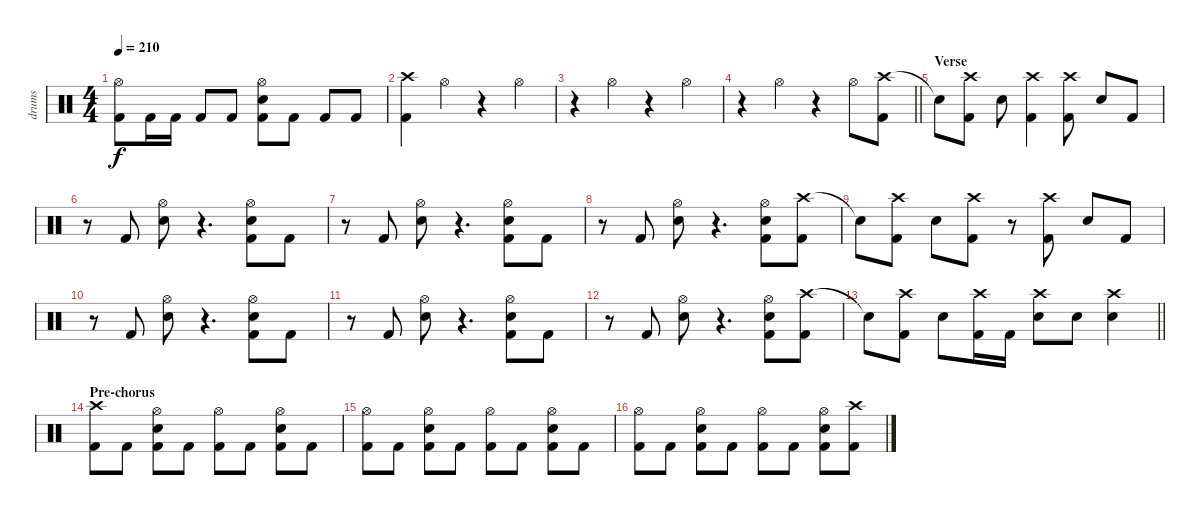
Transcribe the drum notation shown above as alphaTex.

\track ("drums" "drums") {solo instrument percussion}
\staff {score}
\articulation defaults
\ts (4 4)
\tempo 210
\clef neutral
\ks c
("Hi-Hat (open)" "Kick (hit) 2").8{dy f} "Kick (hit) 2".16 "Kick (hit) 2".16 "Kick (hit) 2".8 "Kick (hit) 2".8 ("Hi-Hat (open)" "Electric Snare (hit)" "Kick (hit) 2").8 "Kick (hit) 2".8 "Kick (hit) 2".8 "Kick (hit) 2".8 |
("Crash high (hit)" "Kick (hit) 2").4 "Hi-Hat (open)".4 r.4 "Hi-Hat (open)".4 |
r.4 "Hi-Hat (open)".4 r.4 "Hi-Hat (open)".4 |
\barLineRight lightlight
r.4 "Hi-Hat (open)".4 r.4 "Hi-Hat (open)".8 ("Crash high (hit)" "Kick (hit) 2").8 |
\section ("" "Verse")
"Snare (hit)"{t}.8 ("Crash high (hit)" "Kick (hit) 2").8 "Electric Snare (hit)".8 ("Crash high (hit)" "Kick (hit) 2").4 ("Crash high (hit)" "Kick (hit) 2").8 "Electric Snare (hit)".8 "Kick (hit) 2".8 |
r.8 "Kick (hit) 2".8 ("Hi-Hat (open)" "Electric Snare (hit)").8 r.4{d} ("Hi-Hat (open)" "Electric Snare (hit)" "Kick (hit) 2").8 "Kick (hit) 2".8 |
r.8 "Kick (hit) 2".8 ("Hi-Hat (open)" "Electric Snare (hit)").8 r.4{d} ("Hi-Hat (open)" "Electric Snare (hit)" "Kick (hit) 2").8 "Kick (hit) 2".8 |
r.8 "Kick (hit) 2".8 ("Hi-Hat (open)" "Electric Snare (hit)").8 r.4{d} ("Hi-Hat (open)" "Electric Snare (hit)" "Kick (hit) 2").8 ("Crash high (hit)" "Kick (hit) 2").8 |
"Snare (hit)"{t}.8 ("Crash high (hit)" "Kick (hit) 2").8 "Electric Snare (hit)".8 ("Crash high (hit)" "Kick (hit) 2").8 r.8 ("Crash high (hit)" "Kick (hit) 2").8 "Electric Snare (hit)".8 "Kick (hit) 2".8 |
r.8 "Kick (hit) 2".8 ("Hi-Hat (open)" "Electric Snare (hit)").8 r.4{d} ("Hi-Hat (open)" "Electric Snare (hit)" "Kick (hit) 2").8 "Kick (hit) 2".8 |
r.8 "Kick (hit) 2".8 ("Hi-Hat (open)" "Electric Snare (hit)").8 r.4{d} ("Hi-Hat (open)" "Electric Snare (hit)" "Kick (hit) 2").8 "Kick (hit) 2".8 |
r.8 "Kick (hit) 2".8 ("Hi-Hat (open)" "Electric Snare (hit)").8 r.4{d} ("Hi-Hat (open)" "Electric Snare (hit)" "Kick (hit) 2").8 ("Crash high (hit)" "Kick (hit) 2").8 |
\barLineRight lightlight "Snare (hit)"{t}.8
("Crash high (hit)" "Kick (hit) 2").8 "Electric Snare (hit)".8 ("Crash high (hit)" "Kick (hit) 2").16 "Kick (hit) 2".16 ("Crash high (hit)" "Electric Snare (hit)").8 "Electric Snare (hit)".8 ("Crash high (hit)" "Electric Snare (hit)").4 |
\section ("" "Pre-chorus")
("Crash high (hit)" "Kick (hit) 2").8 "Kick (hit) 2".8 ("Hi-Hat (open)" "Electric Snare (hit)" "Kick (hit) 2").8 "Kick (hit) 2".8 ("Hi-Hat (open)" "Kick (hit) 2").8 "Kick (hit) 2".8 ("Hi-Hat (open)" "Electric Snare (hit)" "Kick (hit) 2").8 "Kick (hit) 2".8 |
("Hi-Hat (open)" "Kick (hit) 2").8 "Kick (hit) 2".8 ("Hi-Hat (open)" "Electric Snare (hit)" "Kick (hit) 2").8 "Kick (hit) 2".8 ("Hi-Hat (open)" "Kick (hit) 2").8 "Kick (hit) 2".8 ("Hi-Hat (open)" "Electric Snare (hit)" "Kick (hit) 2").8 "Kick (hit) 2".8 |
("Hi-Hat (open)" "Kick (hit) 2").8 "Kick (hit) 2".8 ("Hi-Hat (open)" "Electric Snare (hit)" "Kick (hit) 2").8 "Kick (hit) 2".8 ("Hi-Hat (open)" "Kick (hit) 2").8 "Kick (hit) 2".8 ("Hi-Hat (open)" "Electric Snare (hit)" "Kick (hit) 2").8 ("Crash high (hit)" "Kick (hit) 2").8
